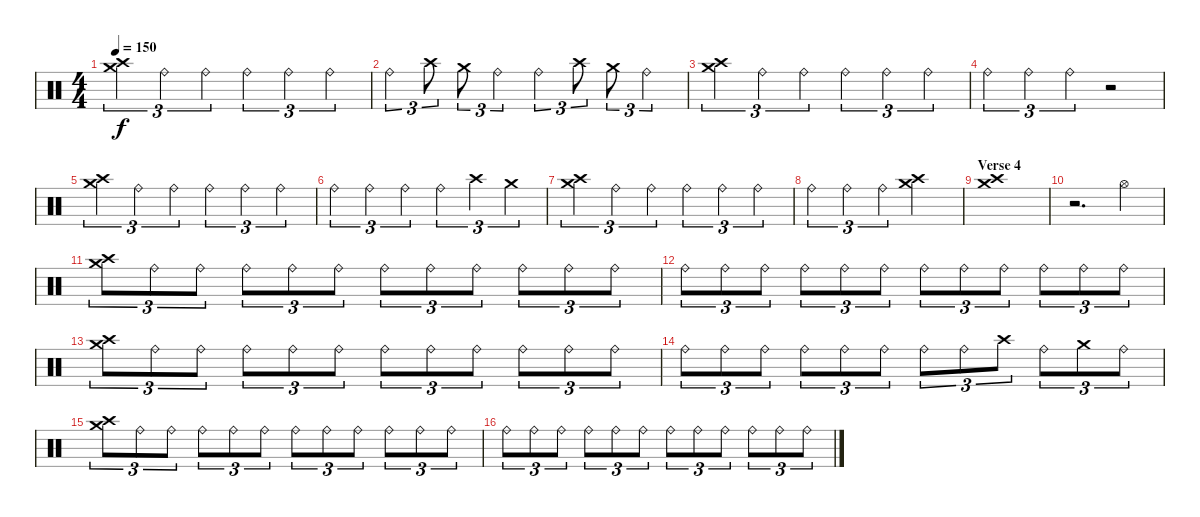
\track "" {instrument percussion}
\staff {score}
\articulation defaults
\ts (4 4)
\tempo 150
\clef neutral
\ks c
("Crash medium (hit)" "Crash high (hit)").4{tu (3 2) dy f} "Ride (bell)".4{tu (3 2)} "Ride (bell)".4{tu (3 2)} "Ride (bell)".4{tu (3 2)} "Ride (bell)".4{tu (3 2)} "Ride (bell)".4{tu (3 2)} |
"Ride (bell)".4{tu (3 2)} "Crash high (hit)".8{tu (3 2)} "Crash medium (hit)".8{tu (3 2)} "Ride (bell)".4{tu (3 2)} "Ride (bell)".4{tu (3 2)} "Crash high (hit)".8{tu (3 2)} "Crash medium (hit)".8{tu (3 2)} "Ride (bell)".4{tu (3 2)} |
("Crash medium (hit)" "Crash high (hit)").4{tu (3 2)} "Ride (bell)".4{tu (3 2)} "Ride (bell)".4{tu (3 2)} "Ride (bell)".4{tu (3 2)} "Ride (bell)".4{tu (3 2)} "Ride (bell)".4{tu (3 2)} |
"Ride (bell)".4{tu (3 2)} "Ride (bell)".4{tu (3 2)} "Ride (bell)".4{tu (3 2)} r.2 |
("Crash medium (hit)" "Crash high (hit)").4{tu (3 2)} "Ride (bell)".4{tu (3 2)} "Ride (bell)".4{tu (3 2)} "Ride (bell)".4{tu (3 2)} "Ride (bell)".4{tu (3 2)} "Ride (bell)".4{tu (3 2)} |
"Ride (bell)".4{tu (3 2)} "Ride (bell)".4{tu (3 2)} "Ride (bell)".4{tu (3 2)} "Ride (bell)".4{tu (3 2)} "Crash high (hit)".4{tu (3 2)} "Crash medium (hit)".4{tu (3 2)} |
("Crash medium (hit)" "Crash high (hit)").4{tu (3 2)} "Ride (bell)".4{tu (3 2)} "Ride (bell)".4{tu (3 2)} "Ride (bell)".4{tu (3 2)} "Ride (bell)".4{tu (3 2)} "Ride (bell)".4{tu (3 2)} |
"Ride (bell)".4{tu (3 2)} "Ride (bell)".4{tu (3 2)} "Ride (bell)".4{tu (3 2)} ("Crash medium (hit)" "Crash high (hit)").2 |
\section ("" "Verse 4")
("Crash medium (hit)" "Crash high (hit)").1 |
r.2{d} "Hi-Hat (open)".4 |
("Crash medium (hit)" "Crash high (hit)").8{tu (3 2)} "Ride (bell)".8{tu (3 2)} "Ride (bell)".8{tu (3 2)} "Ride (bell)".8{tu (3 2)} "Ride (bell)".8{tu (3 2)} "Ride (bell)".8{tu (3 2)} "Ride (bell)".8{tu (3 2)} "Ride (bell)".8{tu (3 2)} "Ride (bell)".8{tu (3 2)} "Ride (bell)".8{tu (3 2)} "Ride (bell)".8{tu (3 2)} "Ride (bell)".8{tu (3 2)} |
"Ride (bell)".8{tu (3 2)} "Ride (bell)".8{tu (3 2)} "Ride (bell)".8{tu (3 2)} "Ride (bell)".8{tu (3 2)} "Ride (bell)".8{tu (3 2)} "Ride (bell)".8{tu (3 2)} "Ride (bell)".8{tu (3 2)} "Ride (bell)".8{tu (3 2)} "Ride (bell)".8{tu (3 2)} "Ride (bell)".8{tu (3 2)} "Ride (bell)".8{tu (3 2)} "Ride (bell)".8{tu (3 2)} |
("Crash medium (hit)" "Crash high (hit)").8{tu (3 2)} "Ride (bell)".8{tu (3 2)} "Ride (bell)".8{tu (3 2)} "Ride (bell)".8{tu (3 2)} "Ride (bell)".8{tu (3 2)} "Ride (bell)".8{tu (3 2)} "Ride (bell)".8{tu (3 2)} "Ride (bell)".8{tu (3 2)} "Ride (bell)".8{tu (3 2)} "Ride (bell)".8{tu (3 2)} "Ride (bell)".8{tu (3 2)} "Ride (bell)".8{tu (3 2)} |
"Ride (bell)".8{tu (3 2)} "Ride (bell)".8{tu (3 2)} "Ride (bell)".8{tu (3 2)} "Ride (bell)".8{tu (3 2)} "Ride (bell)".8{tu (3 2)} "Ride (bell)".8{tu (3 2)} "Ride (bell)".8{tu (3 2)} "Ride (bell)".8{tu (3 2)} "Crash high (hit)".8{tu (3 2)} "Ride (bell)".8{tu (3 2)} "Crash medium (hit)".8{tu (3 2)} "Ride (bell)".8{tu (3 2)} |
("Crash medium (hit)" "Crash high (hit)").8{tu (3 2)} "Ride (bell)".8{tu (3 2)} "Ride (bell)".8{tu (3 2)} "Ride (bell)".8{tu (3 2)} "Ride (bell)".8{tu (3 2)} "Ride (bell)".8{tu (3 2)} "Ride (bell)".8{tu (3 2)} "Ride (bell)".8{tu (3 2)} "Ride (bell)".8{tu (3 2)} "Ride (bell)".8{tu (3 2)} "Ride (bell)".8{tu (3 2)} "Ride (bell)".8{tu (3 2)} |
"Ride (bell)".8{tu (3 2)} "Ride (bell)".8{tu (3 2)} "Ride (bell)".8{tu (3 2)} "Ride (bell)".8{tu (3 2)} "Ride (bell)".8{tu (3 2)} "Ride (bell)".8{tu (3 2)} "Ride (bell)".8{tu (3 2)} "Ride (bell)".8{tu (3 2)} "Ride (bell)".8{tu (3 2)} "Ride (bell)".8{tu (3 2)} "Ride (bell)".8{tu (3 2)} "Ride (bell)".8{tu (3 2)}
